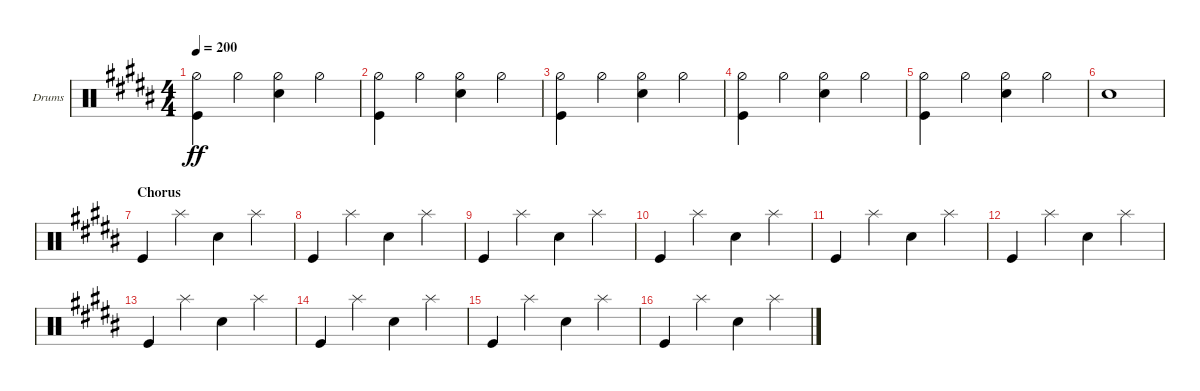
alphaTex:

\defaultSystemsLayout 4
\bracketExtendMode groupsimilarinstruments
\firstSystemTrackNameOrientation horizontal
\otherSystemsTrackNameOrientation horizontal
\track ("Drumkit" "Drums") {instrument percussion}
\staff {score}
\articulation defaults
\ts (4 4)
\tempo 200
\clef neutral
\ks b
("Hi-Hat (half)" "Kick (hit)").4{dy ff} "Hi-Hat (half)".4 ("Hi-Hat (half)" "Snare (hit) 2").4 "Hi-Hat (half)".4 |
("Hi-Hat (half)" "Kick (hit)").4 "Hi-Hat (half)".4 ("Hi-Hat (half)" "Snare (hit) 2").4 "Hi-Hat (half)".4 |
("Hi-Hat (half)" "Kick (hit)").4 "Hi-Hat (half)".4 ("Hi-Hat (half)" "Snare (hit) 2").4 "Hi-Hat (half)".4 |
("Hi-Hat (half)" "Kick (hit)").4 "Hi-Hat (half)".4 ("Hi-Hat (half)" "Snare (hit) 2").4 "Hi-Hat (half)".4 |
("Hi-Hat (half)" "Kick (hit)").4 "Hi-Hat (half)".4 ("Hi-Hat (half)" "Snare (hit) 2").4 "Hi-Hat (half)".4 |
"Snare (hit) 2".1 |
\section ("" "Chorus")
"Kick (hit)".4 "Splash (hit)".4 "Snare (hit) 2".4 "Splash (hit)".4 |
"Kick (hit)".4 "Splash (hit)".4 "Snare (hit) 2".4 "Splash (hit)".4 |
"Kick (hit)".4 "Splash (hit)".4 "Snare (hit) 2".4 "Splash (hit)".4 |
"Kick (hit)".4 "Splash (hit)".4 "Snare (hit) 2".4 "Splash (hit)".4 |
"Kick (hit)".4 "Splash (hit)".4 "Snare (hit) 2".4 "Splash (hit)".4 |
"Kick (hit)".4 "Splash (hit)".4 "Snare (hit) 2".4 "Splash (hit)".4 |
"Kick (hit)".4 "Splash (hit)".4 "Snare (hit) 2".4 "Splash (hit)".4 |
"Kick (hit)".4 "Splash (hit)".4 "Snare (hit) 2".4 "Splash (hit)".4 |
"Kick (hit)".4 "Splash (hit)".4 "Snare (hit) 2".4 "Splash (hit)".4 |
"Kick (hit)".4 "Splash (hit)".4 "Snare (hit) 2".4 "Splash (hit)".4
